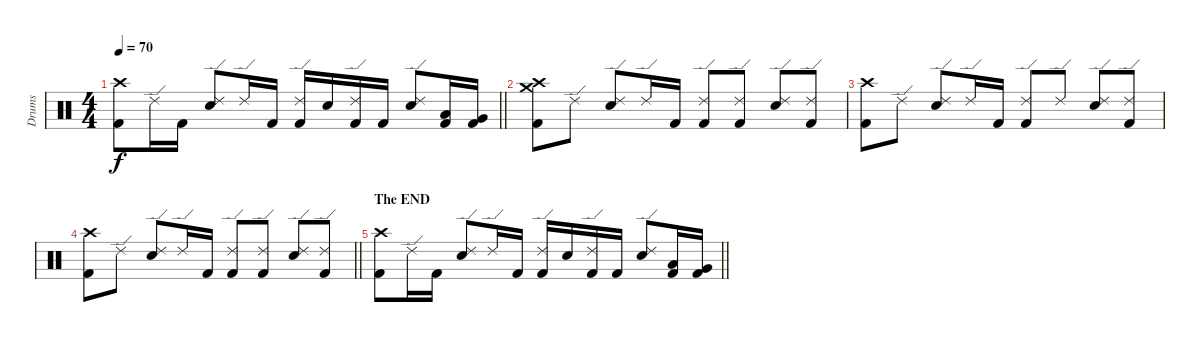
\track ("Drums" "Drums") {instrument percussion}
\staff {score}
\articulation defaults
\ts (4 4)
\tempo 70
\clef neutral
\barLineRight lightlight
\ks c
("Crash high (hit)" "Kick (hit) 2").8{dy f} "Ride (edge) 2".16 "Kick (hit) 2".16 ("Ride (edge) 2" "Snare (hit) 2").8 "Ride (edge) 2".16 "Kick (hit) 2".16 ("Ride (edge) 2" "Kick (hit) 2").16 "Snare (hit) 2".16 ("Ride (edge) 2" "Kick (hit) 2").16 "Kick (hit) 2".16 ("Ride (edge) 2" "Snare (hit) 2").8 ("Low Tom (hit)" "Kick (hit) 2").16 ("Very Low Tom (hit)" "Kick (hit) 2").16 |
("Crash high (hit)" "Crash medium (hit)" "Kick (hit) 2").8 "Ride (edge) 2".8 ("Ride (edge) 2" "Snare (hit) 2").8 "Ride (edge) 2".16 "Kick (hit) 2".16 ("Ride (edge) 2" "Kick (hit) 2").8 ("Ride (edge) 2" "Kick (hit) 2").8 ("Ride (edge) 2" "Snare (hit) 2").8 ("Ride (edge) 2" "Kick (hit) 2").8 |
("Crash high (hit)" "Kick (hit) 2").8 "Ride (edge) 2".8 ("Ride (edge) 2" "Snare (hit) 2").8 "Ride (edge) 2".16 "Kick (hit) 2".16 ("Ride (edge) 2" "Kick (hit) 2").8 "Ride (edge) 2".8 ("Ride (edge) 2" "Snare (hit) 2").8 ("Ride (edge) 2" "Kick (hit) 2").8 |
\barLineRight lightlight
("Crash high (hit)" "Kick (hit) 2").8 "Ride (edge) 2".8 ("Ride (edge) 2" "Snare (hit) 2").8 "Ride (edge) 2".16 "Kick (hit) 2".16 ("Ride (edge) 2" "Kick (hit) 2").8 ("Ride (edge) 2" "Kick (hit) 2").8 ("Ride (edge) 2" "Snare (hit) 2").8 ("Ride (edge) 2" "Kick (hit) 2").8 |
\section ("" "The END")
\barLineRight lightlight
("Crash high (hit)" "Kick (hit) 2").8 "Ride (edge) 2".16 "Kick (hit) 2".16 ("Ride (edge) 2" "Snare (hit) 2").8 "Ride (edge) 2".16 "Kick (hit) 2".16 ("Ride (edge) 2" "Kick (hit) 2").16 "Snare (hit) 2".16 ("Ride (edge) 2" "Kick (hit) 2").16 "Kick (hit) 2".16 ("Ride (edge) 2" "Snare (hit) 2").8 ("Low Tom (hit)" "Kick (hit) 2").16 ("Very Low Tom (hit)" "Kick (hit) 2").16
